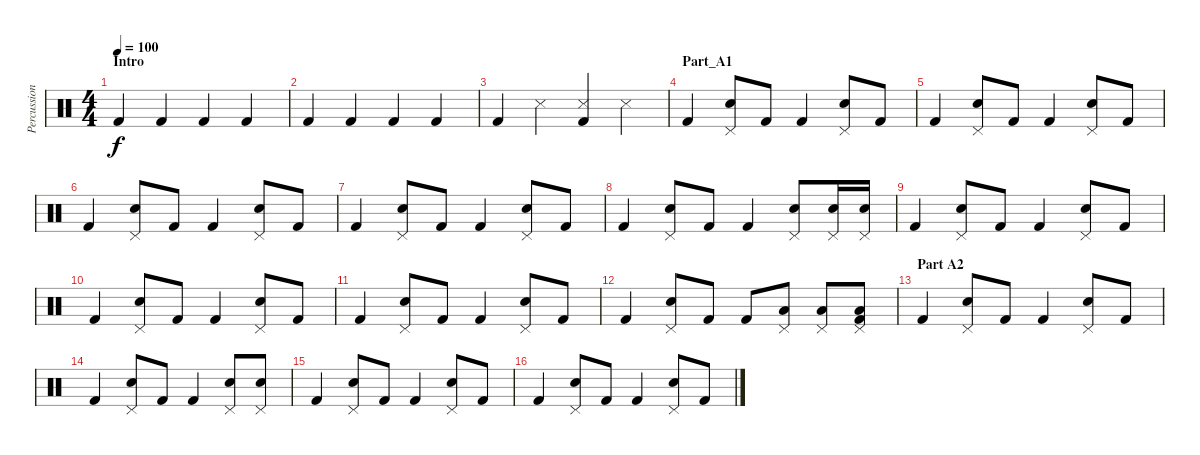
\track ("Percussion" "Percussion") {instrument percussion}
\staff {score}
\articulation defaults
\ts (4 4)
\section ("" "Intro")
\tempo 100
\clef neutral
\ks c "Kick (hit) 2".4{dy f} "Kick (hit) 2".4 "Kick (hit) 2".4 "Kick (hit) 2".4
|
"Kick (hit) 2".4 "Kick (hit) 2".4 "Kick (hit) 2".4 "Kick (hit) 2".4 |
"Kick (hit) 2".4 "Snare (side stick) 3".4 ("Snare (side stick) 3" "Kick (hit) 2").4 "Snare (side stick) 3".4 |
\section ("" "Part_A1")
"Kick (hit) 2".4 ("Pedal Hi-Hat (hit)" "Electric Snare (hit)").8 "Kick (hit) 2".8 "Kick (hit) 2".4 ("Pedal Hi-Hat (hit)" "Electric Snare (hit)").8 "Kick (hit) 2".8 |
"Kick (hit) 2".4 ("Pedal Hi-Hat (hit)" "Electric Snare (hit)").8 "Kick (hit) 2".8 "Kick (hit) 2".4 ("Pedal Hi-Hat (hit)" "Electric Snare (hit)").8 "Kick (hit) 2".8 |
"Kick (hit) 2".4 ("Pedal Hi-Hat (hit)" "Electric Snare (hit)").8 "Kick (hit) 2".8 "Kick (hit) 2".4 ("Pedal Hi-Hat (hit)" "Electric Snare (hit)").8 "Kick (hit) 2".8 |
"Kick (hit) 2".4 ("Pedal Hi-Hat (hit)" "Electric Snare (hit)").8 "Kick (hit) 2".8 "Kick (hit) 2".4 ("Pedal Hi-Hat (hit)" "Electric Snare (hit)").8 "Kick (hit) 2".8 |
"Kick (hit) 2".4 ("Pedal Hi-Hat (hit)" "Electric Snare (hit)").8 "Kick (hit) 2".8 "Kick (hit) 2".4 ("Pedal Hi-Hat (hit)" "Electric Snare (hit)").8 ("Pedal Hi-Hat (hit)" "Electric Snare (hit)").16 ("Pedal Hi-Hat (hit)" "Electric Snare (hit)").16 |
"Kick (hit) 2".4 ("Pedal Hi-Hat (hit)" "Electric Snare (hit)").8 "Kick (hit) 2".8 "Kick (hit) 2".4 ("Pedal Hi-Hat (hit)" "Electric Snare (hit)").8 "Kick (hit) 2".8 |
"Kick (hit) 2".4 ("Pedal Hi-Hat (hit)" "Electric Snare (hit)").8 "Kick (hit) 2".8 "Kick (hit) 2".4 ("Pedal Hi-Hat (hit)" "Electric Snare (hit)").8 "Kick (hit) 2".8 |
"Kick (hit) 2".4 ("Pedal Hi-Hat (hit)" "Electric Snare (hit)").8 "Kick (hit) 2".8 "Kick (hit) 2".4 ("Pedal Hi-Hat (hit)" "Electric Snare (hit)").8 "Kick (hit) 2".8 |
"Kick (hit) 2".4 ("Pedal Hi-Hat (hit)" "Electric Snare (hit)").8 "Kick (hit) 2".8 "Kick (hit) 2".8 ("Pedal Hi-Hat (hit)" "Low Floor Tom (hit)").8 ("Pedal Hi-Hat (hit)" "Low Floor Tom (hit)").8 ("Pedal Hi-Hat (hit)" "Low Floor Tom (hit)" "Kick (hit) 2").8 |
\section ("" "Part A2")
"Kick (hit) 2".4 ("Pedal Hi-Hat (hit)" "Electric Snare (hit)").8 "Kick (hit) 2".8 "Kick (hit) 2".4 ("Pedal Hi-Hat (hit)" "Electric Snare (hit)").8 "Kick (hit) 2".8 |
"Kick (hit) 2".4 ("Pedal Hi-Hat (hit)" "Electric Snare (hit)").8 "Kick (hit) 2".8 "Kick (hit) 2".4 ("Pedal Hi-Hat (hit)" "Electric Snare (hit)").8 ("Pedal Hi-Hat (hit)" "Electric Snare (hit)").8 |
"Kick (hit) 2".4 ("Pedal Hi-Hat (hit)" "Electric Snare (hit)").8 "Kick (hit) 2".8 "Kick (hit) 2".4 ("Pedal Hi-Hat (hit)" "Electric Snare (hit)").8 "Kick (hit) 2".8 |
"Kick (hit) 2".4 ("Pedal Hi-Hat (hit)" "Electric Snare (hit)").8 "Kick (hit) 2".8 "Kick (hit) 2".4 ("Pedal Hi-Hat (hit)" "Electric Snare (hit)").8 "Kick (hit) 2".8
